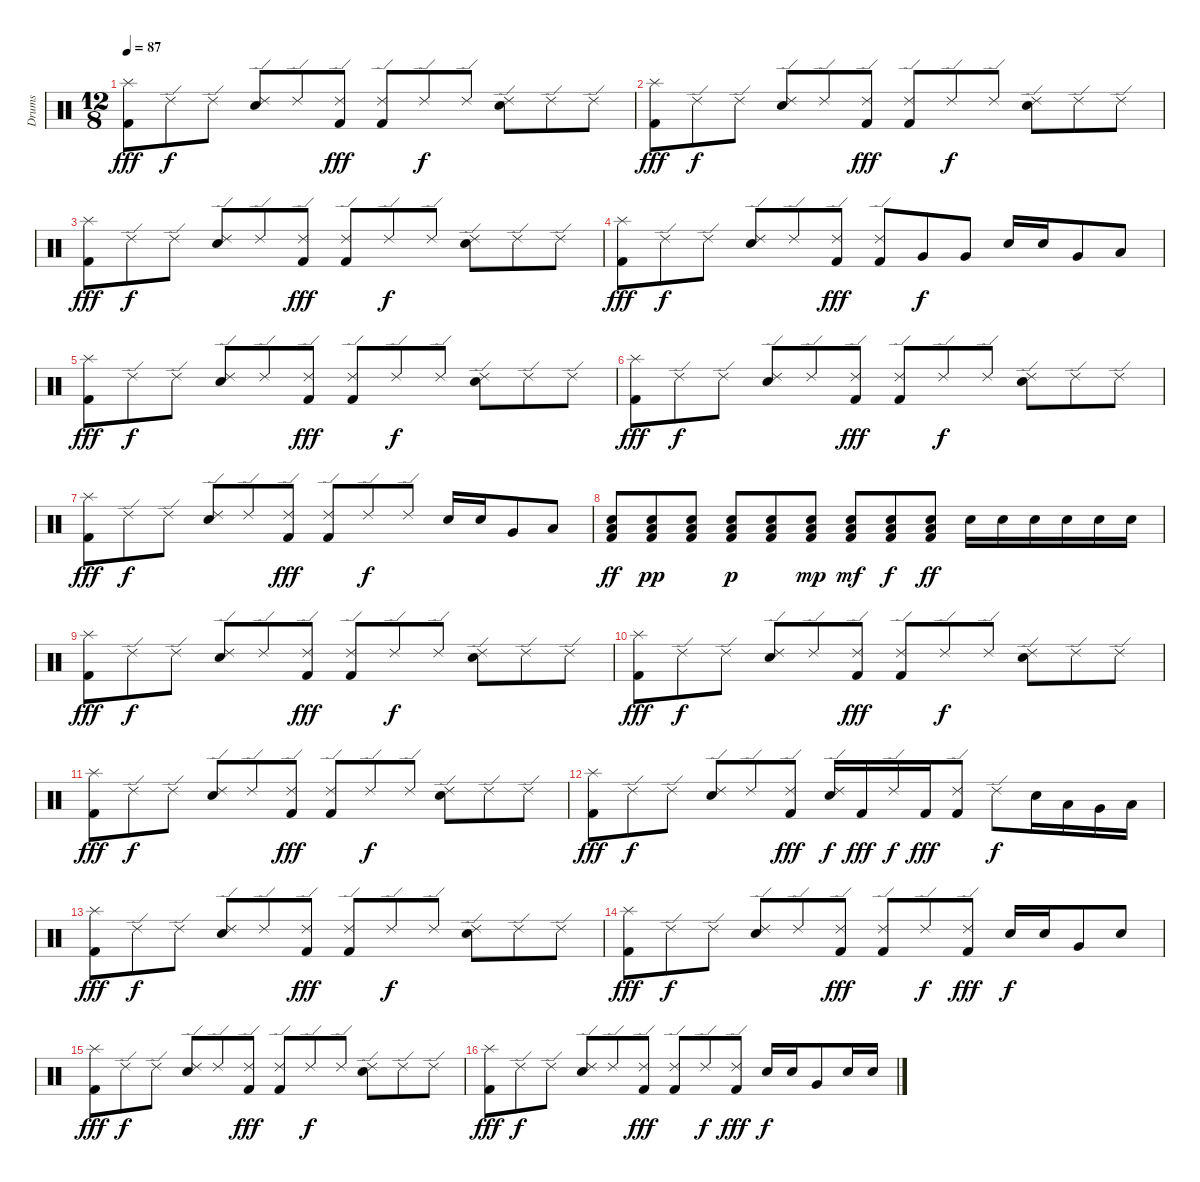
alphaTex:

\track ("Drums" "Drums") {instrument percussion}
\staff {score}
\articulation defaults
\ts (12 8)
\tempo 87
\clef neutral
\ks c
("Splash (hit)" "Kick (hit) 2").8{dy fff} "Ride (edge) 2".8{dy f} "Ride (edge) 2".8 ("Ride (edge) 2" "Snare (hit) 2").8 "Ride (edge) 2".8 ("Ride (edge) 2" "Kick (hit) 2").8{dy fff} ("Ride (edge) 2" "Kick (hit) 2").8 "Ride (edge) 2".8{dy f} "Ride (edge) 2".8 ("Ride (edge) 2" "Snare (hit) 2").8 "Ride (edge) 2".8 "Ride (edge) 2".8 |
("Splash (hit)" "Kick (hit) 2").8{dy fff} "Ride (edge) 2".8{dy f} "Ride (edge) 2".8 ("Ride (edge) 2" "Snare (hit) 2").8 "Ride (edge) 2".8 ("Ride (edge) 2" "Kick (hit) 2").8{dy fff} ("Ride (edge) 2" "Kick (hit) 2").8 "Ride (edge) 2".8{dy f} "Ride (edge) 2".8 ("Ride (edge) 2" "Snare (hit) 2").8 "Ride (edge) 2".8 "Ride (edge) 2".8 |
("Splash (hit)" "Kick (hit) 2").8{dy fff} "Ride (edge) 2".8{dy f} "Ride (edge) 2".8 ("Ride (edge) 2" "Snare (hit) 2").8 "Ride (edge) 2".8 ("Ride (edge) 2" "Kick (hit) 2").8{dy fff} ("Ride (edge) 2" "Kick (hit) 2").8 "Ride (edge) 2".8{dy f} "Ride (edge) 2".8 ("Ride (edge) 2" "Snare (hit) 2").8 "Ride (edge) 2".8 "Ride (edge) 2".8 |
("Splash (hit)" "Kick (hit) 2").8{dy fff} "Ride (edge) 2".8{dy f} "Ride (edge) 2".8 ("Ride (edge) 2" "Snare (hit) 2").8 "Ride (edge) 2".8 ("Ride (edge) 2" "Kick (hit) 2").8{dy fff} ("Ride (edge) 2" "Kick (hit) 2").8 "Very Low Tom (hit)".8{dy f} "Very Low Tom (hit)".8 "Snare (hit) 2".16 "Snare (hit) 2".16 "Very Low Tom (hit)".8 "Low Floor Tom (hit)".8 |
("Splash (hit)" "Kick (hit) 2").8{dy fff} "Ride (edge) 2".8{dy f} "Ride (edge) 2".8 ("Ride (edge) 2" "Snare (hit) 2").8 "Ride (edge) 2".8 ("Ride (edge) 2" "Kick (hit) 2").8{dy fff} ("Ride (edge) 2" "Kick (hit) 2").8 "Ride (edge) 2".8{dy f} "Ride (edge) 2".8 ("Ride (edge) 2" "Snare (hit) 2").8 "Ride (edge) 2".8 "Ride (edge) 2".8 |
("Splash (hit)" "Kick (hit) 2").8{dy fff} "Ride (edge) 2".8{dy f} "Ride (edge) 2".8 ("Ride (edge) 2" "Snare (hit) 2").8 "Ride (edge) 2".8 ("Ride (edge) 2" "Kick (hit) 2").8{dy fff} ("Ride (edge) 2" "Kick (hit) 2").8 "Ride (edge) 2".8{dy f} "Ride (edge) 2".8 ("Ride (edge) 2" "Snare (hit) 2").8 "Ride (edge) 2".8 "Ride (edge) 2".8 |
("Splash (hit)" "Kick (hit) 2").8{dy fff} "Ride (edge) 2".8{dy f} "Ride (edge) 2".8 ("Ride (edge) 2" "Snare (hit) 2").8 "Ride (edge) 2".8 ("Ride (edge) 2" "Kick (hit) 2").8{dy fff} ("Ride (edge) 2" "Kick (hit) 2").8 "Ride (edge) 2".8{dy f} "Ride (edge) 2".8 "Snare (hit) 2".16 "Snare (hit) 2".16 "Very Low Tom (hit)".8 "Low Floor Tom (hit)".8 |
("Snare (hit) 2" "Low Floor Tom (hit)" "Kick (hit) 2").8{dy ff balance 8} ("Snare (hit) 2" "Low Floor Tom (hit)" "Kick (hit) 2").8{dy pp} ("Snare (hit) 2" "Low Floor Tom (hit)" "Kick (hit) 2").8 ("Snare (hit) 2" "Low Floor Tom (hit)" "Kick (hit) 2").8{dy p} ("Snare (hit) 2" "Low Floor Tom (hit)" "Kick (hit) 2").8 ("Snare (hit) 2" "Low Floor Tom (hit)" "Kick (hit) 2").8{dy mp} ("Snare (hit) 2" "Low Floor Tom (hit)" "Kick (hit) 2").8{dy mf} ("Snare (hit) 2" "Low Floor Tom (hit)" "Kick (hit) 2").8{dy f} ("Snare (hit) 2" "Low Floor Tom (hit)" "Kick (hit) 2").8{dy ff} "Snare (hit) 2".16 "Snare (hit) 2".16 "Snare (hit) 2".16 "Snare (hit) 2".16 "Snare (hit) 2".16 "Snare (hit) 2".16 |
("Splash (hit)" "Kick (hit) 2").8{dy fff} "Ride (edge) 2".8{dy f} "Ride (edge) 2".8 ("Ride (edge) 2" "Snare (hit) 2").8 "Ride (edge) 2".8 ("Ride (edge) 2" "Kick (hit) 2").8{dy fff} ("Ride (edge) 2" "Kick (hit) 2").8 "Ride (edge) 2".8{dy f} "Ride (edge) 2".8 ("Ride (edge) 2" "Snare (hit) 2").8 "Ride (edge) 2".8 "Ride (edge) 2".8 |
("Splash (hit)" "Kick (hit) 2").8{dy fff} "Ride (edge) 2".8{dy f} "Ride (edge) 2".8 ("Ride (edge) 2" "Snare (hit) 2").8 "Ride (edge) 2".8 ("Ride (edge) 2" "Kick (hit) 2").8{dy fff} ("Ride (edge) 2" "Kick (hit) 2").8 "Ride (edge) 2".8{dy f} "Ride (edge) 2".8 ("Ride (edge) 2" "Snare (hit) 2").8 "Ride (edge) 2".8 "Ride (edge) 2".8 |
("Splash (hit)" "Kick (hit) 2").8{dy fff} "Ride (edge) 2".8{dy f} "Ride (edge) 2".8 ("Ride (edge) 2" "Snare (hit) 2").8 "Ride (edge) 2".8 ("Ride (edge) 2" "Kick (hit) 2").8{dy fff} ("Ride (edge) 2" "Kick (hit) 2").8 "Ride (edge) 2".8{dy f} "Ride (edge) 2".8 ("Ride (edge) 2" "Snare (hit) 2").8 "Ride (edge) 2".8 "Ride (edge) 2".8 |
("Splash (hit)" "Kick (hit) 2").8{dy fff} "Ride (edge) 2".8{dy f} "Ride (edge) 2".8 ("Ride (edge) 2" "Snare (hit) 2").8 "Ride (edge) 2".8 ("Ride (edge) 2" "Kick (hit) 2").8{dy fff} ("Ride (edge) 2" "Snare (hit) 2").16{dy f} "Kick (hit) 2".16{dy fff} "Ride (edge) 2".16{dy f} "Kick (hit) 2".16{dy fff} ("Ride (edge) 2" "Kick (hit) 2").8 "Ride (edge) 2".8{dy f} "Snare (hit) 2".16 "Low Tom (hit)".16 "Very Low Tom (hit)".16 "Low Floor Tom (hit)".16 |
("Splash (hit)" "Kick (hit) 2").8{dy fff} "Ride (edge) 2".8{dy f} "Ride (edge) 2".8 ("Ride (edge) 2" "Snare (hit) 2").8 "Ride (edge) 2".8 ("Ride (edge) 2" "Kick (hit) 2").8{dy fff} ("Ride (edge) 2" "Kick (hit) 2").8 "Ride (edge) 2".8{dy f} "Ride (edge) 2".8 ("Ride (edge) 2" "Snare (hit) 2").8 "Ride (edge) 2".8 "Ride (edge) 2".8 |
("Splash (hit)" "Kick (hit) 2").8{dy fff} "Ride (edge) 2".8{dy f} "Ride (edge) 2".8 ("Ride (edge) 2" "Snare (hit) 2").8 "Ride (edge) 2".8 ("Ride (edge) 2" "Kick (hit) 2").8{dy fff} ("Ride (edge) 2" "Kick (hit) 2").8 "Ride (edge) 2".8{dy f} ("Ride (edge) 2" "Kick (hit) 2").8{dy fff} "Snare (hit) 2".16{dy f} "Snare (hit) 2".16 "Very Low Tom (hit)".8 "Snare (hit) 2".8 |
("Splash (hit)" "Kick (hit) 2").8{dy fff} "Ride (edge) 2".8{dy f} "Ride (edge) 2".8 ("Ride (edge) 2" "Snare (hit) 2").8 "Ride (edge) 2".8 ("Ride (edge) 2" "Kick (hit) 2").8{dy fff} ("Ride (edge) 2" "Kick (hit) 2").8 "Ride (edge) 2".8{dy f} "Ride (edge) 2".8 ("Ride (edge) 2" "Snare (hit) 2").8 "Ride (edge) 2".8 "Ride (edge) 2".8 |
("Splash (hit)" "Kick (hit) 2").8{dy fff} "Ride (edge) 2".8{dy f} "Ride (edge) 2".8 ("Ride (edge) 2" "Snare (hit) 2").8 "Ride (edge) 2".8 ("Ride (edge) 2" "Kick (hit) 2").8{dy fff} ("Ride (edge) 2" "Kick (hit) 2").8 "Ride (edge) 2".8{dy f} ("Ride (edge) 2" "Kick (hit) 2").8{dy fff} "Snare (hit) 2".16{dy f} "Snare (hit) 2".16 "Very Low Tom (hit)".8 "Snare (hit) 2".16 "Snare (hit) 2".16
